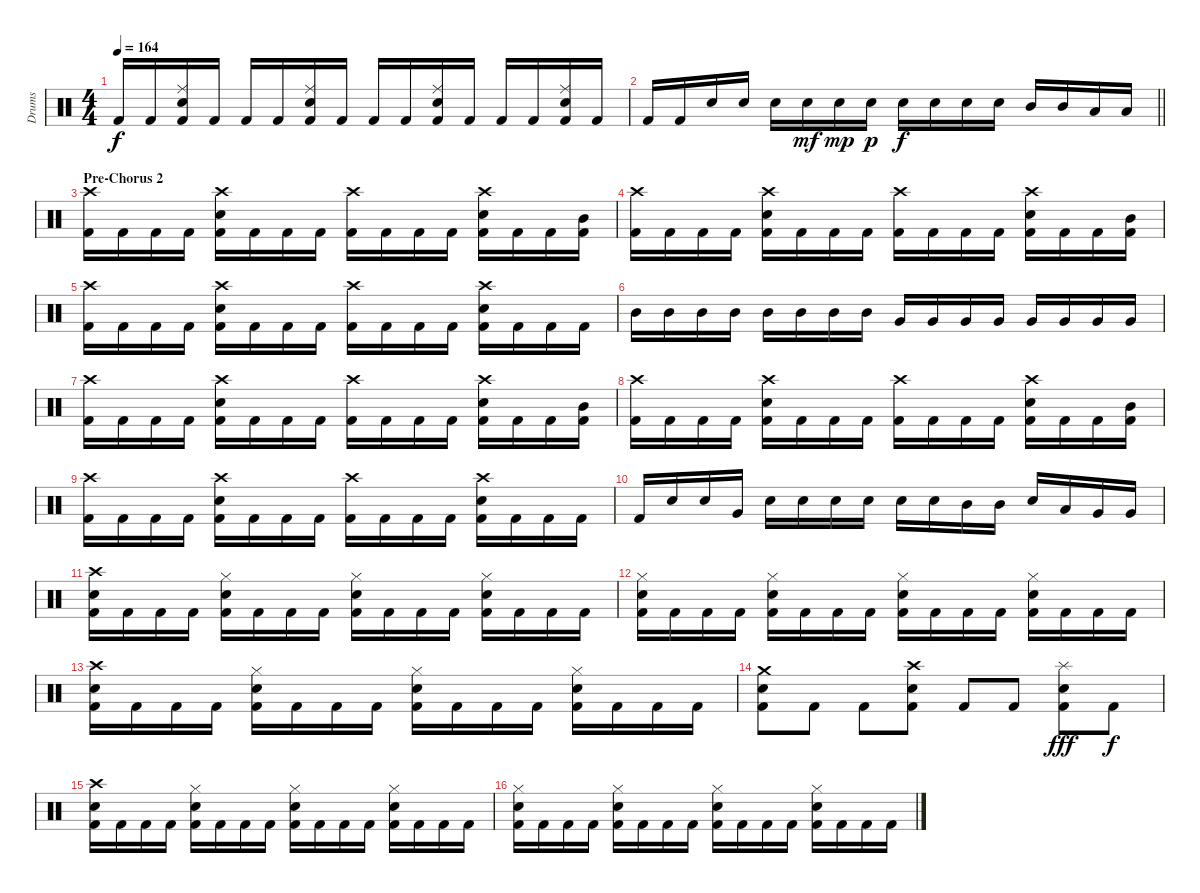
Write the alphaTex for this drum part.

\track ("Drums" "Drums") {instrument percussion}
\staff {score}
\articulation defaults
\ts (4 4)
\tempo 164
\clef neutral
\ks c "Kick (hit) 2".16{dy f} "Kick (hit) 2".16
("Ride (middle)" "Electric Snare (hit)" "Kick (hit) 2").16 "Kick (hit) 2".16 "Kick (hit) 2".16 "Kick (hit) 2".16 ("Ride (middle)" "Electric Snare (hit)" "Kick (hit) 2").16 "Kick (hit) 2".16 "Kick (hit) 2".16 "Kick (hit) 2".16 ("Ride (middle)" "Electric Snare (hit)" "Kick (hit) 2").16 "Kick (hit) 2".16 "Kick (hit) 2".16 "Kick (hit) 2".16 ("Ride (middle)" "Electric Snare (hit)" "Kick (hit) 2").16 "Kick (hit) 2".16 |
\barLineRight lightlight "Kick (hit) 2".16 "Kick (hit) 2".16 "Electric Snare (hit)".16 "Electric Snare (hit)".16 "Electric Snare (hit)".16 "Electric Snare (hit)".16{dy mf} "Electric Snare (hit)".16{dy mp} "Electric Snare (hit)".16{dy p} "Electric Snare (hit)".16{dy f} "Electric Snare (hit)".16 "Electric Snare (hit)".16 "Electric Snare (hit)".16 "Mid Tom (hit)".16 "Mid Tom (hit)".16 "Low Tom (hit)".16 "Low Tom (hit)".16
|
\section ("" "Pre-Chorus 2")
("Crash high (hit)" "Kick (hit) 2").16 "Kick (hit) 2".16 "Kick (hit) 2".16 "Kick (hit) 2".16 ("Crash high (hit)" "Electric Snare (hit)" "Kick (hit) 2").16 "Kick (hit) 2".16 "Kick (hit) 2".16 "Kick (hit) 2".16 ("Crash high (hit)" "Kick (hit) 2").16 "Kick (hit) 2".16 "Kick (hit) 2".16 "Kick (hit) 2".16 ("Crash high (hit)" "Electric Snare (hit)" "Kick (hit) 2").16 "Kick (hit) 2".16 "Kick (hit) 2".16 ("Mid Tom (hit)" "Kick (hit) 2").16 |
("Crash high (hit)" "Kick (hit) 2").16 "Kick (hit) 2".16 "Kick (hit) 2".16 "Kick (hit) 2".16 ("Crash high (hit)" "Electric Snare (hit)" "Kick (hit) 2").16 "Kick (hit) 2".16 "Kick (hit) 2".16 "Kick (hit) 2".16 ("Crash high (hit)" "Kick (hit) 2").16 "Kick (hit) 2".16 "Kick (hit) 2".16 "Kick (hit) 2".16 ("Crash high (hit)" "Electric Snare (hit)" "Kick (hit) 2").16 "Kick (hit) 2".16 "Kick (hit) 2".16 ("Mid Tom (hit)" "Kick (hit) 2").16 |
("Crash high (hit)" "Kick (hit) 2").16 "Kick (hit) 2".16 "Kick (hit) 2".16 "Kick (hit) 2".16 ("Crash high (hit)" "Electric Snare (hit)" "Kick (hit) 2").16 "Kick (hit) 2".16 "Kick (hit) 2".16 "Kick (hit) 2".16 ("Crash high (hit)" "Kick (hit) 2").16 "Kick (hit) 2".16 "Kick (hit) 2".16 "Kick (hit) 2".16 ("Crash high (hit)" "Electric Snare (hit)" "Kick (hit) 2").16 "Kick (hit) 2".16 "Kick (hit) 2".16 "Kick (hit) 2".16 |
"Mid Tom (hit)".16 "Mid Tom (hit)".16 "Mid Tom (hit)".16 "Mid Tom (hit)".16 "Mid Tom (hit)".16 "Mid Tom (hit)".16 "Mid Tom (hit)".16 "Mid Tom (hit)".16 "Very Low Tom (hit)".16 "Very Low Tom (hit)".16 "Very Low Tom (hit)".16 "Very Low Tom (hit)".16 "Very Low Tom (hit)".16 "Very Low Tom (hit)".16 "Very Low Tom (hit)".16 "Very Low Tom (hit)".16 |
("Crash high (hit)" "Kick (hit) 2").16 "Kick (hit) 2".16 "Kick (hit) 2".16 "Kick (hit) 2".16 ("Crash high (hit)" "Electric Snare (hit)" "Kick (hit) 2").16 "Kick (hit) 2".16 "Kick (hit) 2".16 "Kick (hit) 2".16 ("Crash high (hit)" "Kick (hit) 2").16 "Kick (hit) 2".16 "Kick (hit) 2".16 "Kick (hit) 2".16 ("Crash high (hit)" "Electric Snare (hit)" "Kick (hit) 2").16 "Kick (hit) 2".16 "Kick (hit) 2".16 ("Mid Tom (hit)" "Kick (hit) 2").16 |
("Crash high (hit)" "Kick (hit) 2").16 "Kick (hit) 2".16 "Kick (hit) 2".16 "Kick (hit) 2".16 ("Crash high (hit)" "Electric Snare (hit)" "Kick (hit) 2").16 "Kick (hit) 2".16 "Kick (hit) 2".16 "Kick (hit) 2".16 ("Crash high (hit)" "Kick (hit) 2").16 "Kick (hit) 2".16 "Kick (hit) 2".16 "Kick (hit) 2".16 ("Crash high (hit)" "Electric Snare (hit)" "Kick (hit) 2").16 "Kick (hit) 2".16 "Kick (hit) 2".16 ("Mid Tom (hit)" "Kick (hit) 2").16 |
("Crash high (hit)" "Kick (hit) 2").16 "Kick (hit) 2".16 "Kick (hit) 2".16 "Kick (hit) 2".16 ("Crash high (hit)" "Electric Snare (hit)" "Kick (hit) 2").16 "Kick (hit) 2".16 "Kick (hit) 2".16 "Kick (hit) 2".16 ("Crash high (hit)" "Kick (hit) 2").16 "Kick (hit) 2".16 "Kick (hit) 2".16 "Kick (hit) 2".16 ("Crash high (hit)" "Electric Snare (hit)" "Kick (hit) 2").16 "Kick (hit) 2".16 "Kick (hit) 2".16 "Kick (hit) 2".16 |
"Kick (hit) 2".16 "Electric Snare (hit)".16 "Electric Snare (hit)".16 "Very Low Tom (hit)".16 "Electric Snare (hit)".16 "Electric Snare (hit)".16 "Electric Snare (hit)".16 "Electric Snare (hit)".16 "Electric Snare (hit)".16 "Electric Snare (hit)".16 "Mid Tom (hit)".16 "Mid Tom (hit)".16 "Electric Snare (hit)".16 "Low Tom (hit)".16 "Very Low Tom (hit)".16 "Very Low Tom (hit)".16 |
("Crash high (hit)" "Electric Snare (hit)" "Kick (hit) 2").16 "Kick (hit) 2".16 "Kick (hit) 2".16 "Kick (hit) 2".16 ("Hi-Hat (closed)" "Electric Snare (hit)" "Kick (hit) 2").16 "Kick (hit) 2".16 "Kick (hit) 2".16 "Kick (hit) 2".16 ("Hi-Hat (closed)" "Electric Snare (hit)" "Kick (hit) 2").16 "Kick (hit) 2".16 "Kick (hit) 2".16 "Kick (hit) 2".16 ("Hi-Hat (closed)" "Electric Snare (hit)" "Kick (hit) 2").16 "Kick (hit) 2".16 "Kick (hit) 2".16 "Kick (hit) 2".16 |
("Hi-Hat (closed)" "Electric Snare (hit)" "Kick (hit) 2").16 "Kick (hit) 2".16 "Kick (hit) 2".16 "Kick (hit) 2".16 ("Hi-Hat (closed)" "Electric Snare (hit)" "Kick (hit) 2").16 "Kick (hit) 2".16 "Kick (hit) 2".16 "Kick (hit) 2".16 ("Hi-Hat (closed)" "Electric Snare (hit)" "Kick (hit) 2").16 "Kick (hit) 2".16 "Kick (hit) 2".16 "Kick (hit) 2".16 ("Hi-Hat (closed)" "Electric Snare (hit)" "Kick (hit) 2").16 "Kick (hit) 2".16 "Kick (hit) 2".16 "Kick (hit) 2".16 |
("Crash high (hit)" "Electric Snare (hit)" "Kick (hit) 2").16 "Kick (hit) 2".16 "Kick (hit) 2".16 "Kick (hit) 2".16 ("Hi-Hat (closed)" "Electric Snare (hit)" "Kick (hit) 2").16 "Kick (hit) 2".16 "Kick (hit) 2".16 "Kick (hit) 2".16 ("Hi-Hat (closed)" "Electric Snare (hit)" "Kick (hit) 2").16 "Kick (hit) 2".16 "Kick (hit) 2".16 "Kick (hit) 2".16 ("Hi-Hat (closed)" "Electric Snare (hit)" "Kick (hit) 2").16 "Kick (hit) 2".16 "Kick (hit) 2".16 "Kick (hit) 2".16 |
("Crash medium (hit)" "Electric Snare (hit)" "Kick (hit) 2").8 "Kick (hit) 2".8 "Kick (hit) 2".8 ("Crash high (hit)" "Electric Snare (hit)" "Kick (hit) 2").8 "Kick (hit) 2".8 "Kick (hit) 2".8 ("Splash (hit)" "Electric Snare (hit)" "Kick (hit) 2").8{dy fff} "Kick (hit) 2".8{dy f} |
("Crash high (hit)" "Electric Snare (hit)" "Kick (hit) 2").16 "Kick (hit) 2".16 "Kick (hit) 2".16 "Kick (hit) 2".16 ("Hi-Hat (closed)" "Electric Snare (hit)" "Kick (hit) 2").16 "Kick (hit) 2".16 "Kick (hit) 2".16 "Kick (hit) 2".16 ("Hi-Hat (closed)" "Electric Snare (hit)" "Kick (hit) 2").16 "Kick (hit) 2".16 "Kick (hit) 2".16 "Kick (hit) 2".16 ("Hi-Hat (closed)" "Electric Snare (hit)" "Kick (hit) 2").16 "Kick (hit) 2".16 "Kick (hit) 2".16 "Kick (hit) 2".16 |
("Hi-Hat (closed)" "Electric Snare (hit)" "Kick (hit) 2").16 "Kick (hit) 2".16 "Kick (hit) 2".16 "Kick (hit) 2".16 ("Hi-Hat (closed)" "Electric Snare (hit)" "Kick (hit) 2").16 "Kick (hit) 2".16 "Kick (hit) 2".16 "Kick (hit) 2".16 ("Hi-Hat (closed)" "Electric Snare (hit)" "Kick (hit) 2").16 "Kick (hit) 2".16 "Kick (hit) 2".16 "Kick (hit) 2".16 ("Hi-Hat (closed)" "Electric Snare (hit)" "Kick (hit) 2").16 "Kick (hit) 2".16 "Kick (hit) 2".16 "Kick (hit) 2".16
